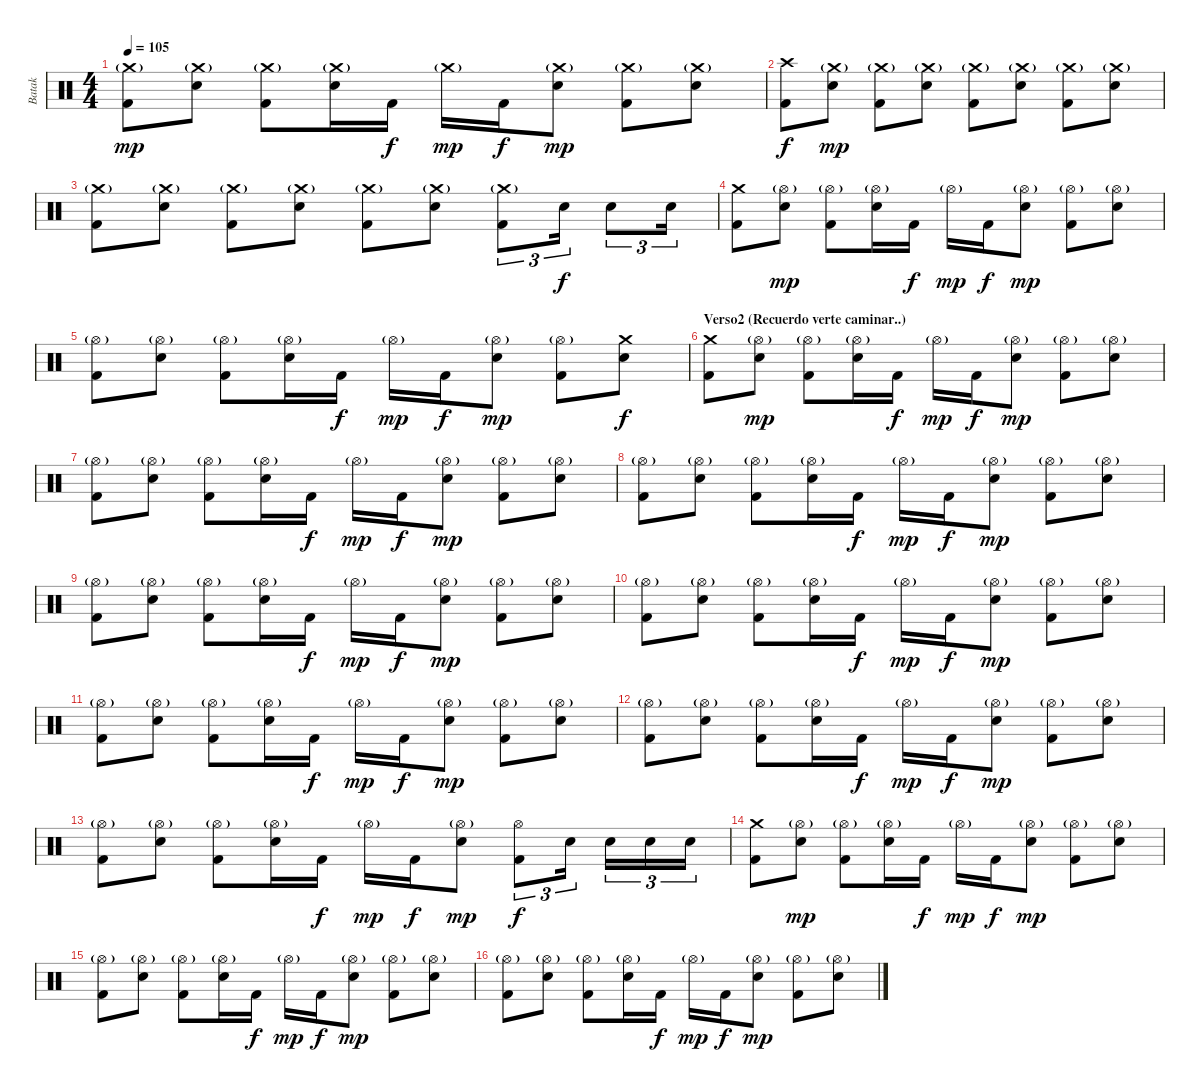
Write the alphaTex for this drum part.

\track ("Batak" "Batak") {instrument percussion}
\staff {score}
\articulation defaults
\ts (4 4)
\tempo 105
\clef neutral
\ks c
("Crash medium (hit)"{g} "Kick (hit) 2").8{dy mp} ("Crash medium (hit)"{g} "Electric Snare (hit)").8 ("Crash medium (hit)"{g} "Kick (hit) 2").8 ("Crash medium (hit)"{g} "Electric Snare (hit)").16 "Kick (hit) 2".16{dy f} "Crash medium (hit)"{g}.16{dy mp} "Kick (hit) 2".16{dy f} ("Crash medium (hit)"{g} "Electric Snare (hit)").8{dy mp} ("Crash medium (hit)"{g} "Kick (hit) 2").8 ("Crash medium (hit)"{g} "Electric Snare (hit)").8 |
("Crash high (hit)" "Kick (hit) 2").8{dy f} ("Crash medium (hit)"{g} "Electric Snare (hit)").8{dy mp} ("Crash medium (hit)"{g} "Kick (hit) 2").8 ("Crash medium (hit)"{g} "Electric Snare (hit)").8 ("Crash medium (hit)"{g} "Kick (hit) 2").8 ("Crash medium (hit)"{g} "Electric Snare (hit)").8 ("Crash medium (hit)"{g} "Kick (hit) 2").8 ("Crash medium (hit)"{g} "Electric Snare (hit)").8 |
("Crash medium (hit)"{g} "Kick (hit) 2").8 ("Crash medium (hit)"{g} "Electric Snare (hit)").8 ("Crash medium (hit)"{g} "Kick (hit) 2").8 ("Crash medium (hit)"{g} "Electric Snare (hit)").8 ("Crash medium (hit)"{g} "Kick (hit) 2").8 ("Crash medium (hit)"{g} "Electric Snare (hit)").8 ("Crash medium (hit)"{g} "Kick (hit) 2").8{tu (3 2)} "Electric Snare (hit)".16{tu (3 2) dy f} "Electric Snare (hit)".8{tu (3 2)} "Electric Snare (hit)".16{tu (3 2)} |
("Crash medium (hit)" "Kick (hit) 2").8 ("Hi-Hat (open)"{g} "Electric Snare (hit)").8{dy mp} ("Hi-Hat (open)"{g} "Kick (hit) 2").8 ("Hi-Hat (open)"{g} "Electric Snare (hit)").16 "Kick (hit) 2".16{dy f} "Hi-Hat (open)"{g}.16{dy mp} "Kick (hit) 2".16{dy f} ("Hi-Hat (open)"{g} "Electric Snare (hit)").8{dy mp} ("Hi-Hat (open)"{g} "Kick (hit) 2").8 ("Hi-Hat (open)"{g} "Electric Snare (hit)").8 |
("Hi-Hat (open)"{g} "Kick (hit) 2").8 ("Hi-Hat (open)"{g} "Electric Snare (hit)").8 ("Hi-Hat (open)"{g} "Kick (hit) 2").8 ("Hi-Hat (open)"{g} "Electric Snare (hit)").16 "Kick (hit) 2".16{dy f} "Hi-Hat (open)"{g}.16{dy mp} "Kick (hit) 2".16{dy f} ("Hi-Hat (open)"{g} "Electric Snare (hit)").8{dy mp} ("Hi-Hat (open)"{g} "Kick (hit) 2").8 ("Crash medium (hit)" "Electric Snare (hit)").8{dy f} |
\section ("" "Verso2 (Recuerdo verte caminar..)")
("Crash medium (hit)" "Kick (hit) 2").8 ("Hi-Hat (open)"{g} "Electric Snare (hit)").8{dy mp} ("Hi-Hat (open)"{g} "Kick (hit) 2").8 ("Hi-Hat (open)"{g} "Electric Snare (hit)").16 "Kick (hit) 2".16{dy f} "Hi-Hat (open)"{g}.16{dy mp} "Kick (hit) 2".16{dy f} ("Hi-Hat (open)"{g} "Electric Snare (hit)").8{dy mp} ("Hi-Hat (open)"{g} "Kick (hit) 2").8 ("Hi-Hat (open)"{g} "Electric Snare (hit)").8 |
("Hi-Hat (open)"{g} "Kick (hit) 2").8 ("Hi-Hat (open)"{g} "Electric Snare (hit)").8 ("Hi-Hat (open)"{g} "Kick (hit) 2").8 ("Hi-Hat (open)"{g} "Electric Snare (hit)").16 "Kick (hit) 2".16{dy f} "Hi-Hat (open)"{g}.16{dy mp} "Kick (hit) 2".16{dy f} ("Hi-Hat (open)"{g} "Electric Snare (hit)").8{dy mp} ("Hi-Hat (open)"{g} "Kick (hit) 2").8 ("Hi-Hat (open)"{g} "Electric Snare (hit)").8 |
("Hi-Hat (open)"{g} "Kick (hit) 2").8 ("Hi-Hat (open)"{g} "Electric Snare (hit)").8 ("Hi-Hat (open)"{g} "Kick (hit) 2").8 ("Hi-Hat (open)"{g} "Electric Snare (hit)").16 "Kick (hit) 2".16{dy f} "Hi-Hat (open)"{g}.16{dy mp} "Kick (hit) 2".16{dy f} ("Hi-Hat (open)"{g} "Electric Snare (hit)").8{dy mp} ("Hi-Hat (open)"{g} "Kick (hit) 2").8 ("Hi-Hat (open)"{g} "Electric Snare (hit)").8 |
("Hi-Hat (open)"{g} "Kick (hit) 2").8 ("Hi-Hat (open)"{g} "Electric Snare (hit)").8 ("Hi-Hat (open)"{g} "Kick (hit) 2").8 ("Hi-Hat (open)"{g} "Electric Snare (hit)").16 "Kick (hit) 2".16{dy f} "Hi-Hat (open)"{g}.16{dy mp} "Kick (hit) 2".16{dy f} ("Hi-Hat (open)"{g} "Electric Snare (hit)").8{dy mp} ("Hi-Hat (open)"{g} "Kick (hit) 2").8 ("Hi-Hat (open)"{g} "Electric Snare (hit)").8 |
("Hi-Hat (open)"{g} "Kick (hit) 2").8 ("Hi-Hat (open)"{g} "Electric Snare (hit)").8 ("Hi-Hat (open)"{g} "Kick (hit) 2").8 ("Hi-Hat (open)"{g} "Electric Snare (hit)").16 "Kick (hit) 2".16{dy f} "Hi-Hat (open)"{g}.16{dy mp} "Kick (hit) 2".16{dy f} ("Hi-Hat (open)"{g} "Electric Snare (hit)").8{dy mp} ("Hi-Hat (open)"{g} "Kick (hit) 2").8 ("Hi-Hat (open)"{g} "Electric Snare (hit)").8 |
("Hi-Hat (open)"{g} "Kick (hit) 2").8 ("Hi-Hat (open)"{g} "Electric Snare (hit)").8 ("Hi-Hat (open)"{g} "Kick (hit) 2").8 ("Hi-Hat (open)"{g} "Electric Snare (hit)").16 "Kick (hit) 2".16{dy f} "Hi-Hat (open)"{g}.16{dy mp} "Kick (hit) 2".16{dy f} ("Hi-Hat (open)"{g} "Electric Snare (hit)").8{dy mp} ("Hi-Hat (open)"{g} "Kick (hit) 2").8 ("Hi-Hat (open)"{g} "Electric Snare (hit)").8 |
("Hi-Hat (open)"{g} "Kick (hit) 2").8 ("Hi-Hat (open)"{g} "Electric Snare (hit)").8 ("Hi-Hat (open)"{g} "Kick (hit) 2").8 ("Hi-Hat (open)"{g} "Electric Snare (hit)").16 "Kick (hit) 2".16{dy f} "Hi-Hat (open)"{g}.16{dy mp} "Kick (hit) 2".16{dy f} ("Hi-Hat (open)"{g} "Electric Snare (hit)").8{dy mp} ("Hi-Hat (open)"{g} "Kick (hit) 2").8 ("Hi-Hat (open)"{g} "Electric Snare (hit)").8 |
("Hi-Hat (open)"{g} "Kick (hit) 2").8 ("Hi-Hat (open)"{g} "Electric Snare (hit)").8 ("Hi-Hat (open)"{g} "Kick (hit) 2").8 ("Hi-Hat (open)"{g} "Electric Snare (hit)").16 "Kick (hit) 2".16{dy f} "Hi-Hat (open)"{g}.16{dy mp} "Kick (hit) 2".16{dy f} ("Hi-Hat (open)"{g} "Electric Snare (hit)").8{dy mp} ("Hi-Hat (open)" "Kick (hit) 2").8{tu (3 2) dy f} "Electric Snare (hit)".16{tu (3 2)} "Electric Snare (hit)".16{tu (3 2)} "Electric Snare (hit)".16{tu (3 2)} "Electric Snare (hit)".16{tu (3 2)} |
("Crash medium (hit)" "Kick (hit) 2").8 ("Hi-Hat (open)"{g} "Electric Snare (hit)").8{dy mp} ("Hi-Hat (open)"{g} "Kick (hit) 2").8 ("Hi-Hat (open)"{g} "Electric Snare (hit)").16 "Kick (hit) 2".16{dy f} "Hi-Hat (open)"{g}.16{dy mp} "Kick (hit) 2".16{dy f} ("Hi-Hat (open)"{g} "Electric Snare (hit)").8{dy mp} ("Hi-Hat (open)"{g} "Kick (hit) 2").8 ("Hi-Hat (open)"{g} "Electric Snare (hit)").8 |
("Hi-Hat (open)"{g} "Kick (hit) 2").8 ("Hi-Hat (open)"{g} "Electric Snare (hit)").8 ("Hi-Hat (open)"{g} "Kick (hit) 2").8 ("Hi-Hat (open)"{g} "Electric Snare (hit)").16 "Kick (hit) 2".16{dy f} "Hi-Hat (open)"{g}.16{dy mp} "Kick (hit) 2".16{dy f} ("Hi-Hat (open)"{g} "Electric Snare (hit)").8{dy mp} ("Hi-Hat (open)"{g} "Kick (hit) 2").8 ("Hi-Hat (open)"{g} "Electric Snare (hit)").8 |
("Hi-Hat (open)"{g} "Kick (hit) 2").8 ("Hi-Hat (open)"{g} "Electric Snare (hit)").8 ("Hi-Hat (open)"{g} "Kick (hit) 2").8 ("Hi-Hat (open)"{g} "Electric Snare (hit)").16 "Kick (hit) 2".16{dy f} "Hi-Hat (open)"{g}.16{dy mp} "Kick (hit) 2".16{dy f} ("Hi-Hat (open)"{g} "Electric Snare (hit)").8{dy mp} ("Hi-Hat (open)"{g} "Kick (hit) 2").8 ("Hi-Hat (open)"{g} "Electric Snare (hit)").8
